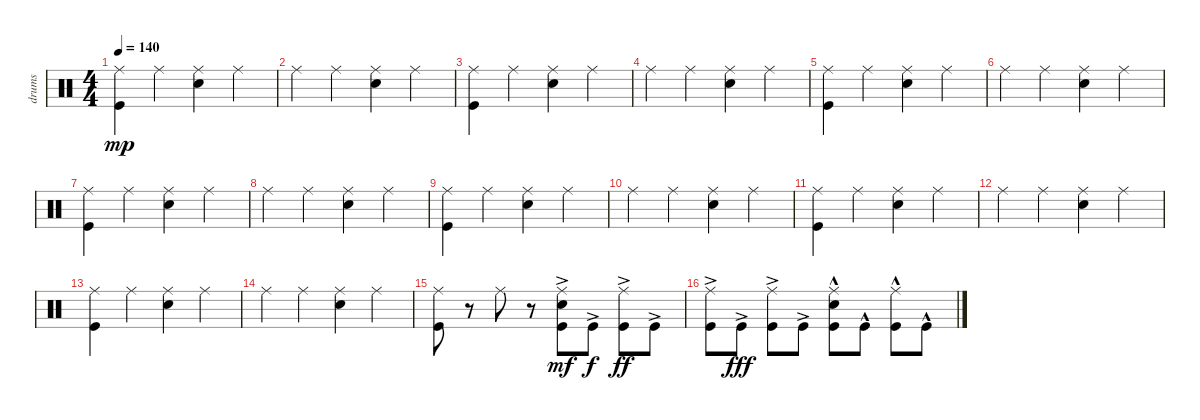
\track ("drums" "drums") {instrument percussion}
\staff {score}
\articulation defaults
\ts (4 4)
\tempo 140
\clef neutral
\ks c
("Ride (middle)" "Kick (hit)").4{dy mp} "Ride (middle)".4 ("Ride (middle)" "Snare (hit) 2").4 "Ride (middle)".4 |
"Ride (middle)".4 "Ride (middle)".4 ("Ride (middle)" "Snare (hit) 2").4 "Ride (middle)".4 |
("Ride (middle)" "Kick (hit)").4 "Ride (middle)".4 ("Ride (middle)" "Snare (hit) 2").4 "Ride (middle)".4 |
"Ride (middle)".4 "Ride (middle)".4 ("Ride (middle)" "Snare (hit) 2").4 "Ride (middle)".4 |
("Ride (middle)" "Kick (hit)").4 "Ride (middle)".4 ("Ride (middle)" "Snare (hit) 2").4 "Ride (middle)".4 |
"Ride (middle)".4 "Ride (middle)".4 ("Ride (middle)" "Snare (hit) 2").4 "Ride (middle)".4 |
("Ride (middle)" "Kick (hit)").4 "Ride (middle)".4 ("Ride (middle)" "Snare (hit) 2").4 "Ride (middle)".4 |
"Ride (middle)".4 "Ride (middle)".4 ("Ride (middle)" "Snare (hit) 2").4 "Ride (middle)".4 |
("Ride (middle)" "Kick (hit)").4 "Ride (middle)".4 ("Ride (middle)" "Snare (hit) 2").4 "Ride (middle)".4 |
"Ride (middle)".4 "Ride (middle)".4 ("Ride (middle)" "Snare (hit) 2").4 "Ride (middle)".4 |
("Ride (middle)" "Kick (hit)").4 "Ride (middle)".4 ("Ride (middle)" "Snare (hit) 2").4 "Ride (middle)".4 |
"Ride (middle)".4 "Ride (middle)".4 ("Ride (middle)" "Snare (hit) 2").4 "Ride (middle)".4 |
("Ride (middle)" "Kick (hit)").4 "Ride (middle)".4 ("Ride (middle)" "Snare (hit) 2").4 "Ride (middle)".4 |
"Ride (middle)".4 "Ride (middle)".4 ("Ride (middle)" "Snare (hit) 2").4 "Ride (middle)".4 |
("Ride (middle)" "Kick (hit)").8 r.8 "Ride (middle)".8 r.8 ("Ride (middle)" "Snare (hit) 2" "Kick (hit)"{ac}).8{dy mf} "Kick (hit)"{ac}.8{dy f} ("Ride (middle)" "Kick (hit)"{ac}).8{dy ff} "Kick (hit)"{ac}.8 |
("Ride (middle)" "Kick (hit)"{ac}).8 "Kick (hit)"{ac}.8{dy fff} ("Ride (middle)" "Kick (hit)"{ac}).8 "Kick (hit)"{ac}.8 ("Ride (middle)" "Snare (hit) 2" "Kick (hit)"{hac}).8 "Kick (hit)"{hac}.8 ("Ride (middle)" "Kick (hit)"{hac}).8 "Kick (hit)"{hac}.8
